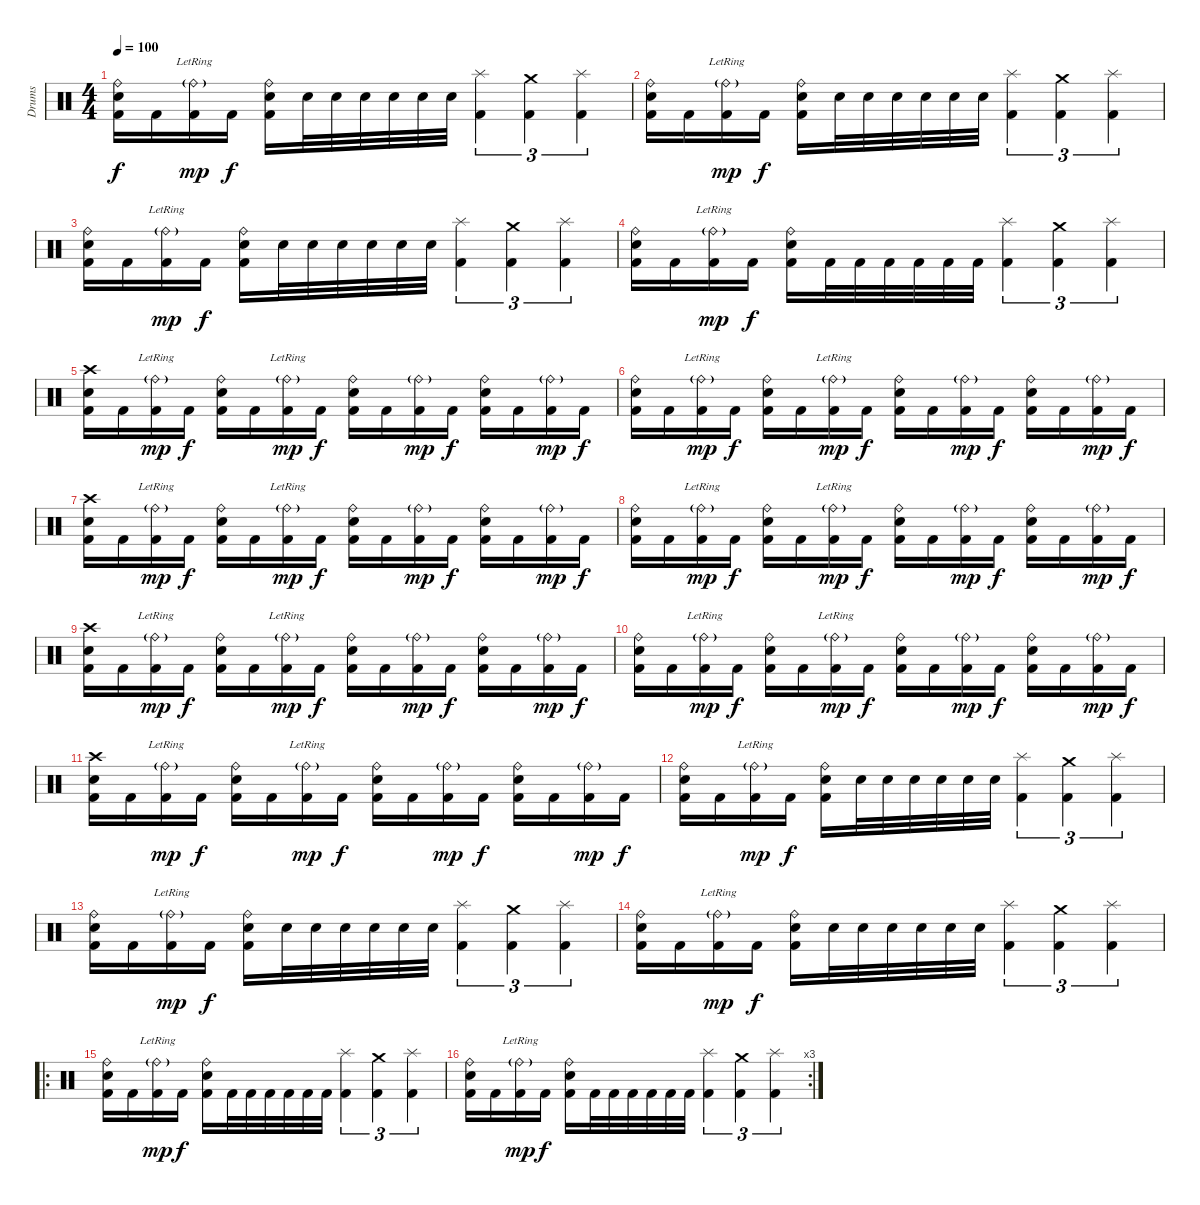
\track ("Drums" "Drums") {instrument percussion}
\staff {score}
\articulation defaults
\ts (4 4)
\tempo 100
\clef neutral
\ks c
("Ride (bell)" "Electric Snare (hit)" "Kick (hit) 2").16{dy f} "Kick (hit) 2".16 ("Ride (bell)"{g lr} "Kick (hit) 2").16{dy mp} "Kick (hit) 2".16{dy f} ("Ride (bell)" "Electric Snare (hit)" "Kick (hit) 2").16 "Electric Snare (hit)".32 "Electric Snare (hit)".32 "Electric Snare (hit)".32 "Electric Snare (hit)".32 "Electric Snare (hit)".32 "Electric Snare (hit)".32 ("Splash (hit)" "Kick (hit) 2").4{tu (3 2)} ("Crash medium (hit)" "Kick (hit) 2").4{tu (3 2)} ("Splash (hit)" "Kick (hit) 2").4{tu (3 2)} |
("Ride (bell)" "Electric Snare (hit)" "Kick (hit) 2").16 "Kick (hit) 2".16 ("Ride (bell)"{g lr} "Kick (hit) 2").16{dy mp} "Kick (hit) 2".16{dy f} ("Ride (bell)" "Electric Snare (hit)" "Kick (hit) 2").16 "Electric Snare (hit)".32 "Electric Snare (hit)".32 "Electric Snare (hit)".32 "Electric Snare (hit)".32 "Electric Snare (hit)".32 "Electric Snare (hit)".32 ("Splash (hit)" "Kick (hit) 2").4{tu (3 2)} ("Crash medium (hit)" "Kick (hit) 2").4{tu (3 2)} ("Splash (hit)" "Kick (hit) 2").4{tu (3 2)} |
("Ride (bell)" "Electric Snare (hit)" "Kick (hit) 2").16 "Kick (hit) 2".16 ("Ride (bell)"{g lr} "Kick (hit) 2").16{dy mp} "Kick (hit) 2".16{dy f} ("Ride (bell)" "Electric Snare (hit)" "Kick (hit) 2").16 "Electric Snare (hit)".32 "Electric Snare (hit)".32 "Electric Snare (hit)".32 "Electric Snare (hit)".32 "Electric Snare (hit)".32 "Electric Snare (hit)".32 ("Splash (hit)" "Kick (hit) 2").4{tu (3 2)} ("Crash medium (hit)" "Kick (hit) 2").4{tu (3 2)} ("Splash (hit)" "Kick (hit) 2").4{tu (3 2)} |
("Ride (bell)" "Electric Snare (hit)" "Kick (hit) 2").16 "Kick (hit) 2".16 ("Ride (bell)"{g lr} "Kick (hit) 2").16{dy mp} "Kick (hit) 2".16{dy f} ("Ride (bell)" "Electric Snare (hit)" "Kick (hit) 2").16 "Kick (hit) 2".32 "Kick (hit) 2".32 "Kick (hit) 2".32 "Kick (hit) 2".32 "Kick (hit) 2".32 "Kick (hit) 2".32 ("Splash (hit)" "Kick (hit) 2").4{tu (3 2)} ("Crash medium (hit)" "Kick (hit) 2").4{tu (3 2)} ("Splash (hit)" "Kick (hit) 2").4{tu (3 2)} |
("Crash high (hit)" "Electric Snare (hit)" "Kick (hit) 2").16 "Kick (hit) 2".16 ("Ride (bell)"{g lr} "Kick (hit) 2").16{dy mp} "Kick (hit) 2".16{dy f} ("Ride (bell)" "Electric Snare (hit)" "Kick (hit) 2").16 "Kick (hit) 2".16 ("Ride (bell)"{g lr} "Kick (hit) 2").16{dy mp} "Kick (hit) 2".16{dy f} ("Ride (bell)" "Electric Snare (hit)" "Kick (hit) 2").16 "Kick (hit) 2".16 ("Ride (bell)"{g} "Kick (hit) 2").16{dy mp} "Kick (hit) 2".16{dy f} ("Ride (bell)" "Electric Snare (hit)" "Kick (hit) 2").16 "Kick (hit) 2".16 ("Ride (bell)"{g} "Kick (hit) 2").16{dy mp} "Kick (hit) 2".16{dy f} |
("Ride (bell)" "Electric Snare (hit)" "Kick (hit) 2").16 "Kick (hit) 2".16 ("Ride (bell)"{g lr} "Kick (hit) 2").16{dy mp} "Kick (hit) 2".16{dy f} ("Ride (bell)" "Electric Snare (hit)" "Kick (hit) 2").16 "Kick (hit) 2".16 ("Ride (bell)"{g lr} "Kick (hit) 2").16{dy mp} "Kick (hit) 2".16{dy f} ("Ride (bell)" "Electric Snare (hit)" "Kick (hit) 2").16 "Kick (hit) 2".16 ("Ride (bell)"{g} "Kick (hit) 2").16{dy mp} "Kick (hit) 2".16{dy f} ("Ride (bell)" "Electric Snare (hit)" "Kick (hit) 2").16 "Kick (hit) 2".16 ("Ride (bell)"{g} "Kick (hit) 2").16{dy mp} "Kick (hit) 2".16{dy f} |
("Crash high (hit)" "Electric Snare (hit)" "Kick (hit) 2").16 "Kick (hit) 2".16 ("Ride (bell)"{g lr} "Kick (hit) 2").16{dy mp} "Kick (hit) 2".16{dy f} ("Ride (bell)" "Electric Snare (hit)" "Kick (hit) 2").16 "Kick (hit) 2".16 ("Ride (bell)"{g lr} "Kick (hit) 2").16{dy mp} "Kick (hit) 2".16{dy f} ("Ride (bell)" "Electric Snare (hit)" "Kick (hit) 2").16 "Kick (hit) 2".16 ("Ride (bell)"{g} "Kick (hit) 2").16{dy mp} "Kick (hit) 2".16{dy f} ("Ride (bell)" "Electric Snare (hit)" "Kick (hit) 2").16 "Kick (hit) 2".16 ("Ride (bell)"{g} "Kick (hit) 2").16{dy mp} "Kick (hit) 2".16{dy f} |
("Ride (bell)" "Electric Snare (hit)" "Kick (hit) 2").16 "Kick (hit) 2".16 ("Ride (bell)"{g lr} "Kick (hit) 2").16{dy mp} "Kick (hit) 2".16{dy f} ("Ride (bell)" "Electric Snare (hit)" "Kick (hit) 2").16 "Kick (hit) 2".16 ("Ride (bell)"{g lr} "Kick (hit) 2").16{dy mp} "Kick (hit) 2".16{dy f} ("Ride (bell)" "Electric Snare (hit)" "Kick (hit) 2").16 "Kick (hit) 2".16 ("Ride (bell)"{g} "Kick (hit) 2").16{dy mp} "Kick (hit) 2".16{dy f} ("Ride (bell)" "Electric Snare (hit)" "Kick (hit) 2").16 "Kick (hit) 2".16 ("Ride (bell)"{g} "Kick (hit) 2").16{dy mp} "Kick (hit) 2".16{dy f} |
("Crash high (hit)" "Electric Snare (hit)" "Kick (hit) 2").16 "Kick (hit) 2".16 ("Ride (bell)"{g lr} "Kick (hit) 2").16{dy mp} "Kick (hit) 2".16{dy f} ("Ride (bell)" "Electric Snare (hit)" "Kick (hit) 2").16 "Kick (hit) 2".16 ("Ride (bell)"{g lr} "Kick (hit) 2").16{dy mp} "Kick (hit) 2".16{dy f} ("Ride (bell)" "Electric Snare (hit)" "Kick (hit) 2").16 "Kick (hit) 2".16 ("Ride (bell)"{g} "Kick (hit) 2").16{dy mp} "Kick (hit) 2".16{dy f} ("Ride (bell)" "Electric Snare (hit)" "Kick (hit) 2").16 "Kick (hit) 2".16 ("Ride (bell)"{g} "Kick (hit) 2").16{dy mp} "Kick (hit) 2".16{dy f} |
("Ride (bell)" "Electric Snare (hit)" "Kick (hit) 2").16 "Kick (hit) 2".16 ("Ride (bell)"{g lr} "Kick (hit) 2").16{dy mp} "Kick (hit) 2".16{dy f} ("Ride (bell)" "Electric Snare (hit)" "Kick (hit) 2").16 "Kick (hit) 2".16 ("Ride (bell)"{g lr} "Kick (hit) 2").16{dy mp} "Kick (hit) 2".16{dy f} ("Ride (bell)" "Electric Snare (hit)" "Kick (hit) 2").16 "Kick (hit) 2".16 ("Ride (bell)"{g} "Kick (hit) 2").16{dy mp} "Kick (hit) 2".16{dy f} ("Ride (bell)" "Electric Snare (hit)" "Kick (hit) 2").16 "Kick (hit) 2".16 ("Ride (bell)"{g} "Kick (hit) 2").16{dy mp} "Kick (hit) 2".16{dy f} |
("Crash high (hit)" "Electric Snare (hit)" "Kick (hit) 2").16 "Kick (hit) 2".16 ("Ride (bell)"{g lr} "Kick (hit) 2").16{dy mp} "Kick (hit) 2".16{dy f} ("Ride (bell)" "Electric Snare (hit)" "Kick (hit) 2").16 "Kick (hit) 2".16 ("Ride (bell)"{g lr} "Kick (hit) 2").16{dy mp} "Kick (hit) 2".16{dy f} ("Ride (bell)" "Electric Snare (hit)" "Kick (hit) 2").16 "Kick (hit) 2".16 ("Ride (bell)"{g} "Kick (hit) 2").16{dy mp} "Kick (hit) 2".16{dy f} ("Ride (bell)" "Electric Snare (hit)" "Kick (hit) 2").16 "Kick (hit) 2".16 ("Ride (bell)"{g} "Kick (hit) 2").16{dy mp} "Kick (hit) 2".16{dy f} |
("Ride (bell)" "Electric Snare (hit)" "Kick (hit) 2").16 "Kick (hit) 2".16 ("Ride (bell)"{g lr} "Kick (hit) 2").16{dy mp} "Kick (hit) 2".16{dy f} ("Ride (bell)" "Electric Snare (hit)" "Kick (hit) 2").16 "Electric Snare (hit)".32 "Electric Snare (hit)".32 "Electric Snare (hit)".32 "Electric Snare (hit)".32 "Electric Snare (hit)".32 "Electric Snare (hit)".32 ("Splash (hit)" "Kick (hit) 2").4{tu (3 2)} ("Crash medium (hit)" "Kick (hit) 2").4{tu (3 2)} ("Splash (hit)" "Kick (hit) 2").4{tu (3 2)} |
("Ride (bell)" "Electric Snare (hit)" "Kick (hit) 2").16 "Kick (hit) 2".16 ("Ride (bell)"{g lr} "Kick (hit) 2").16{dy mp} "Kick (hit) 2".16{dy f} ("Ride (bell)" "Electric Snare (hit)" "Kick (hit) 2").16 "Electric Snare (hit)".32 "Electric Snare (hit)".32 "Electric Snare (hit)".32 "Electric Snare (hit)".32 "Electric Snare (hit)".32 "Electric Snare (hit)".32 ("Splash (hit)" "Kick (hit) 2").4{tu (3 2)} ("Crash medium (hit)" "Kick (hit) 2").4{tu (3 2)} ("Splash (hit)" "Kick (hit) 2").4{tu (3 2)} |
("Ride (bell)" "Electric Snare (hit)" "Kick (hit) 2").16 "Kick (hit) 2".16 ("Ride (bell)"{g lr} "Kick (hit) 2").16{dy mp} "Kick (hit) 2".16{dy f} ("Ride (bell)" "Electric Snare (hit)" "Kick (hit) 2").16 "Electric Snare (hit)".32 "Electric Snare (hit)".32 "Electric Snare (hit)".32 "Electric Snare (hit)".32 "Electric Snare (hit)".32 "Electric Snare (hit)".32 ("Splash (hit)" "Kick (hit) 2").4{tu (3 2)} ("Crash medium (hit)" "Kick (hit) 2").4{tu (3 2)} ("Splash (hit)" "Kick (hit) 2").4{tu (3 2)} |
\ro
("Ride (bell)" "Electric Snare (hit)" "Kick (hit) 2").16 "Kick (hit) 2".16 ("Ride (bell)"{g lr} "Kick (hit) 2").16{dy mp} "Kick (hit) 2".16{dy f} ("Ride (bell)" "Electric Snare (hit)" "Kick (hit) 2").16 "Kick (hit) 2".32 "Kick (hit) 2".32 "Kick (hit) 2".32 "Kick (hit) 2".32 "Kick (hit) 2".32 "Kick (hit) 2".32 ("Splash (hit)" "Kick (hit) 2").4{tu (3 2)} ("Crash medium (hit)" "Kick (hit) 2").4{tu (3 2)} ("Splash (hit)" "Kick (hit) 2").4{tu (3 2)} |
\rc 3
("Ride (bell)" "Electric Snare (hit)" "Kick (hit) 2").16 "Kick (hit) 2".16 ("Ride (bell)"{g lr} "Kick (hit) 2").16{dy mp} "Kick (hit) 2".16{dy f} ("Ride (bell)" "Electric Snare (hit)" "Kick (hit) 2").16 "Kick (hit) 2".32 "Kick (hit) 2".32 "Kick (hit) 2".32 "Kick (hit) 2".32 "Kick (hit) 2".32 "Kick (hit) 2".32 ("Splash (hit)" "Kick (hit) 2").4{tu (3 2)} ("Crash medium (hit)" "Kick (hit) 2").4{tu (3 2)} ("Splash (hit)" "Kick (hit) 2").4{tu (3 2)}
